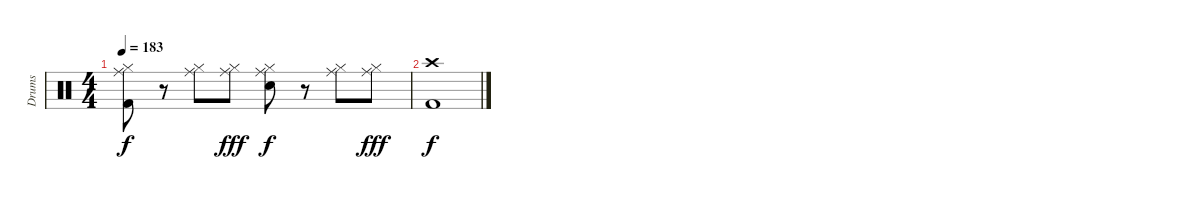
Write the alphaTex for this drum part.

\track ("Drums" "Drums") {instrument percussion}
\staff {score}
\articulation defaults
\ts (4 4)
\tempo 183
\clef neutral
\ks c
("Ride (middle)" "Hi-Hat (closed)" "Kick (hit) 2").8{dy f} r.8 ("Ride (middle)" "Hi-Hat (closed)").8 ("Ride (middle)" "Hi-Hat (closed)").8{dy fff} ("Ride (middle)" "Hi-Hat (closed)" "Snare (hit) 2").8{dy f} r.8 ("Ride (middle)" "Hi-Hat (closed)").8 ("Ride (middle)" "Hi-Hat (closed)").8{dy fff} |
("Crash high (hit)" "Kick (hit) 2").1{dy f}
